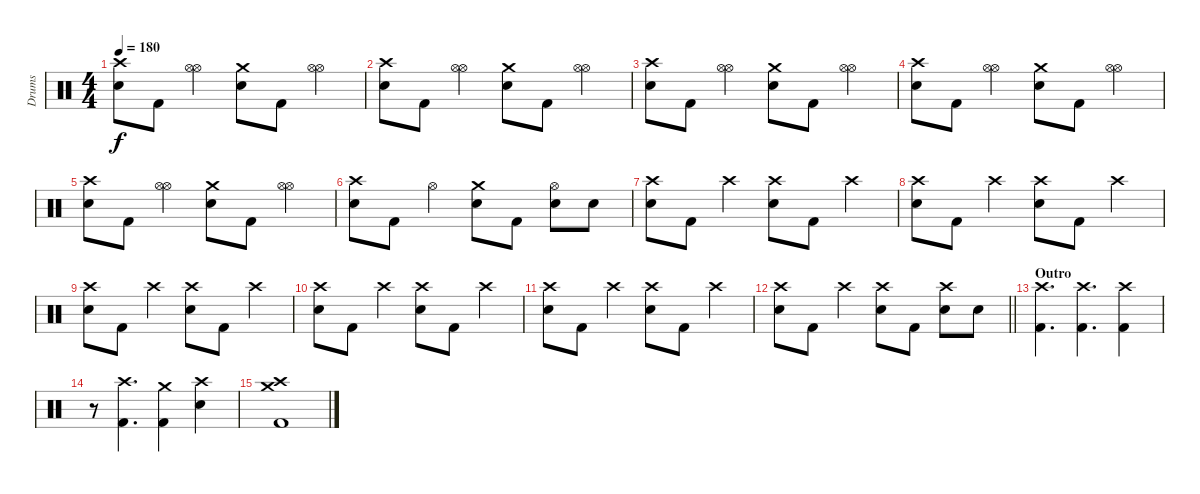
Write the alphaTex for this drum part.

\track ("Drums" "Drums") {instrument percussion}
\staff {score}
\articulation defaults
\ts (4 4)
\tempo 180
\clef neutral
\ks c
("Electric Snare (hit)" "Crash high (hit)").8{dy f} "Kick (hit) 2".8 ("Hi-Hat (open)" "Hi-Hat (open)").4 ("Electric Snare (hit)" "Crash medium (hit)").8 "Kick (hit) 2".8 ("Hi-Hat (open)" "Hi-Hat (open)").4 |
("Electric Snare (hit)" "Crash high (hit)").8 "Kick (hit) 2".8 ("Hi-Hat (open)" "Hi-Hat (open)").4 ("Electric Snare (hit)" "Crash medium (hit)").8 "Kick (hit) 2".8 ("Hi-Hat (open)" "Hi-Hat (open)").4 |
("Electric Snare (hit)" "Crash high (hit)").8 "Kick (hit) 2".8 ("Hi-Hat (open)" "Hi-Hat (open)").4 ("Electric Snare (hit)" "Crash medium (hit)").8 "Kick (hit) 2".8 ("Hi-Hat (open)" "Hi-Hat (open)").4 |
("Electric Snare (hit)" "Crash high (hit)").8 "Kick (hit) 2".8 ("Hi-Hat (open)" "Hi-Hat (open)").4 ("Electric Snare (hit)" "Crash medium (hit)").8 "Kick (hit) 2".8 ("Hi-Hat (open)" "Hi-Hat (open)").4 |
("Electric Snare (hit)" "Crash high (hit)").8 "Kick (hit) 2".8 ("Hi-Hat (open)" "Hi-Hat (open)").4 ("Electric Snare (hit)" "Crash medium (hit)").8 "Kick (hit) 2".8 ("Hi-Hat (open)" "Hi-Hat (open)").4 |
("Electric Snare (hit)" "Crash high (hit)").8 "Kick (hit) 2".8 "Hi-Hat (open)".4 ("Electric Snare (hit)" "Crash medium (hit)").8 "Kick (hit) 2".8 ("Electric Snare (hit)" "Hi-Hat (open)").8 "Electric Snare (hit)".8 |
("Electric Snare (hit)" "Crash high (hit)").8 "Kick (hit) 2".8 "Crash high (hit)".4 ("Electric Snare (hit)" "Crash high (hit)").8 "Kick (hit) 2".8 "Crash high (hit)".4 |
("Electric Snare (hit)" "Crash high (hit)").8 "Kick (hit) 2".8 "Crash high (hit)".4 ("Electric Snare (hit)" "Crash high (hit)").8 "Kick (hit) 2".8 "Crash high (hit)".4 |
("Electric Snare (hit)" "Crash high (hit)").8 "Kick (hit) 2".8 "Crash high (hit)".4 ("Electric Snare (hit)" "Crash high (hit)").8 "Kick (hit) 2".8 "Crash high (hit)".4 |
("Electric Snare (hit)" "Crash high (hit)").8 "Kick (hit) 2".8 "Crash high (hit)".4 ("Electric Snare (hit)" "Crash high (hit)").8 "Kick (hit) 2".8 "Crash high (hit)".4 |
("Electric Snare (hit)" "Crash high (hit)").8 "Kick (hit) 2".8 "Crash high (hit)".4 ("Electric Snare (hit)" "Crash high (hit)").8 "Kick (hit) 2".8 "Crash high (hit)".4 |
\barLineRight lightlight
("Electric Snare (hit)" "Crash high (hit)").8 "Kick (hit) 2".8 "Crash high (hit)".4 ("Electric Snare (hit)" "Crash high (hit)").8 "Kick (hit) 2".8 ("Electric Snare (hit)" "Crash high (hit)").8 "Electric Snare (hit)".8 |
\section ("" "Outro")
("Crash high (hit)" "Kick (hit) 2").4{d} ("Crash high (hit)" "Kick (hit) 2").4{d} ("Crash high (hit)" "Kick (hit) 2").4 |
r.8 ("Crash high (hit)" "Kick (hit) 2").4{d} ("Crash medium (hit)" "Kick (hit) 2").4 ("Electric Snare (hit)" "Crash high (hit)").4 |
("Crash high (hit)" "Crash medium (hit)" "Kick (hit) 2").1
